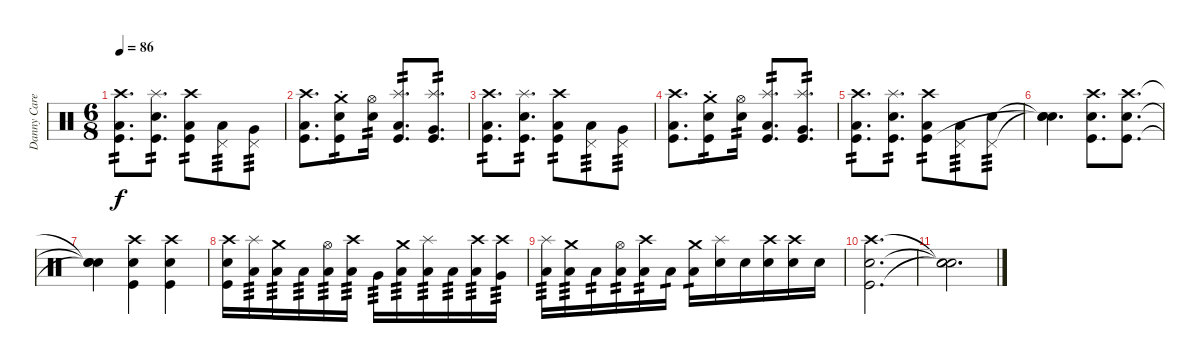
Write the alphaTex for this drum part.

\track ("Danny Carey" "Danny Care") {instrument percussion}
\staff {score}
\articulation defaults
\ts (6 8)
\tempo 86
\clef neutral
\ks c
("Crash high (hit)" "Low Floor Tom (hit)" "Kick (hit)").8{d tp 2 dy f} ("Splash (hit)" "Electric Snare (hit)" "Kick (hit)").8{d tp 2} ("Crash high (hit)" "Low Floor Tom (hit)" "Kick (hit)").8{tp 2} ("Pedal Hi-Hat (hit)" "Low Tom (hit)").8{tp 3} ("Pedal Hi-Hat (hit)" "Very Low Tom (hit)").8{tp 3} |
("Crash high (hit)" "Low Floor Tom (hit)" "Kick (hit)").8{d} ("Crash medium (hit)" "Electric Snare (hit)"{st} "Kick (hit)").8{tp 2} ("Hi-Hat (open)" "Electric Snare (hit)").16{tp 2} ("Splash (hit)" "Low Tom (hit)" "Kick (hit)").8{d tp 2} ("Splash (hit)" "Very Low Tom (hit)" "Kick (hit)").8{d tp 2} |
("Crash high (hit)" "Low Floor Tom (hit)" "Kick (hit)").8{d tp 2} ("Splash (hit)" "Electric Snare (hit)" "Kick (hit)").8{d tp 2} ("Crash high (hit)" "Low Floor Tom (hit)" "Kick (hit)").8{tp 2} ("Pedal Hi-Hat (hit)" "Low Tom (hit)").8{tp 3} ("Pedal Hi-Hat (hit)" "Very Low Tom (hit)").8{tp 3} |
("Crash high (hit)" "Low Floor Tom (hit)" "Kick (hit)").8{d} ("Crash medium (hit)" "Electric Snare (hit)"{st} "Kick (hit)").8{tp 2} ("Hi-Hat (open)" "Electric Snare (hit)").16{tp 2} ("Splash (hit)" "Low Tom (hit)" "Kick (hit)").8{d tp 2} ("Splash (hit)" "Very Low Tom (hit)" "Kick (hit)").8{d tp 2} |
("Crash high (hit)" "Low Floor Tom (hit)" "Kick (hit)").8{d tp 2} ("Splash (hit)" "Electric Snare (hit)" "Kick (hit)").8{d tp 2} ("Crash high (hit)" "Low Floor Tom (hit)" "Kick (hit)").8{tp 2} ("Pedal Hi-Hat (hit)" "Low Tom (hit)").8{tp 3} ("Pedal Hi-Hat (hit)" "Electric Snare (hit)").8{tp 3} |
("Snare (hit)"{t} "Snare (hit)"{t} "Snare (hit)"{t}).4{d} ("Crash high (hit)" "Electric Snare (hit)" "Kick (hit)").8{d} ("Crash high (hit)" "Electric Snare (hit)" "Kick (hit)").8{d} |
("Snare (hit)"{t} "Snare (hit)"{t} "Snare (hit)"{t}).4 ("Crash high (hit)" "Electric Snare (hit)" "Kick (hit)").4 ("Crash high (hit)" "Electric Snare (hit)" "Kick (hit)").4 |
("Crash high (hit)" "Electric Snare (hit)" "Kick (hit)").16 ("Splash (hit)" "Low Tom (hit)").16{tp 3} ("Crash medium (hit)" "Low Tom (hit)").16{tp 3} "Low Tom (hit)".16{tp 3} ("Hi-Hat (open)" "Low Tom (hit)").16{tp 3} ("Crash high (hit)" "Low Tom (hit)").16{tp 3} "Very Low Tom (hit)".16{tp 3} ("Crash medium (hit)" "Low Tom (hit)").16{tp 3} ("Splash (hit)" "Low Tom (hit)").16{tp 3} "Low Tom (hit)".16{tp 3} ("Crash high (hit)" "Low Tom (hit)").16{tp 3} ("Crash high (hit)" "Very Low Tom (hit)").16{tp 3} |
("Splash (hit)" "Low Tom (hit)").16{tp 3} ("Crash medium (hit)" "Low Tom (hit)").16{tp 3} "Low Tom (hit)".16{tp 2} ("Hi-Hat (open)" "Low Tom (hit)").16{tp 2} ("Crash high (hit)" "Low Floor Tom (hit)").16{tp 2} "Low Floor Tom (hit)".16{tp 1} ("Crash medium (hit)" "Low Floor Tom (hit)").16{tp 1} ("Splash (hit)" "Electric Snare (hit)").16 "Electric Snare (hit)".16 ("Crash high (hit)" "Electric Snare (hit)").16 ("Crash high (hit)" "Electric Snare (hit)").16 "Electric Snare (hit)".16 |
("Crash high (hit)" "Electric Snare (hit)" "Kick (hit)").2{d} |
("Snare (hit)"{t} "Snare (hit)"{t} "Snare (hit)"{t}).2{d}
